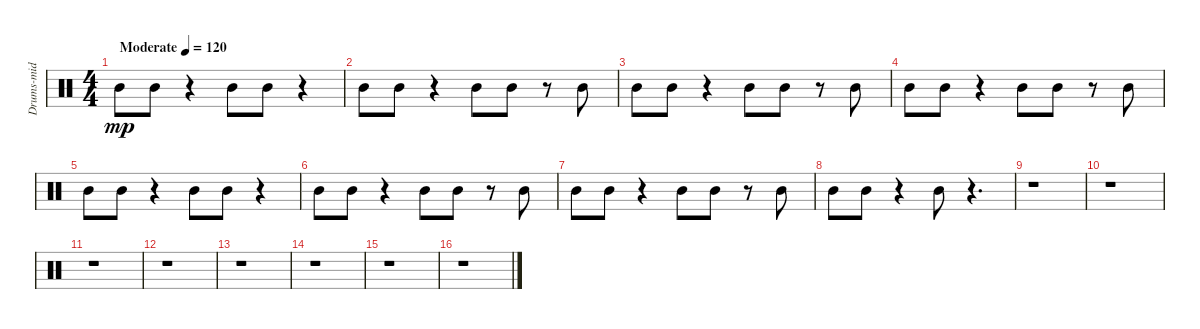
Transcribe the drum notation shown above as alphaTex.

\track ("Drums-mid tom 1" "Drums-mid ") {instrument percussion}
\staff {score}
\articulation defaults
\ts (4 4)
\tempo (120 "Moderate")
\clef neutral
\ks c "Mid Tom (hit)".8{dy mp} "Mid Tom (hit)".8
r.4 "Mid Tom (hit)".8 "Mid Tom (hit)".8 r.4 |
"Mid Tom (hit)".8 "Mid Tom (hit)".8 r.4 "Mid Tom (hit)".8 "Mid Tom (hit)".8 r.8 "Mid Tom (hit)".8 |
"Mid Tom (hit)".8 "Mid Tom (hit)".8 r.4 "Mid Tom (hit)".8 "Mid Tom (hit)".8 r.8 "Mid Tom (hit)".8 |
"Mid Tom (hit)".8 "Mid Tom (hit)".8 r.4 "Mid Tom (hit)".8 "Mid Tom (hit)".8 r.8 "Mid Tom (hit)".8 |
"Mid Tom (hit)".8 "Mid Tom (hit)".8 r.4 "Mid Tom (hit)".8 "Mid Tom (hit)".8 r.4 |
"Mid Tom (hit)".8 "Mid Tom (hit)".8 r.4 "Mid Tom (hit)".8 "Mid Tom (hit)".8 r.8 "Mid Tom (hit)".8 |
"Mid Tom (hit)".8 "Mid Tom (hit)".8 r.4 "Mid Tom (hit)".8 "Mid Tom (hit)".8 r.8 "Mid Tom (hit)".8 |
"Mid Tom (hit)".8 "Mid Tom (hit)".8 r.4 "Mid Tom (hit)".8 r.4{d} |
r.1 |
r.1 |
r.1 |
r.1 |
r.1 |
r.1 |
r.1 |
r.1
